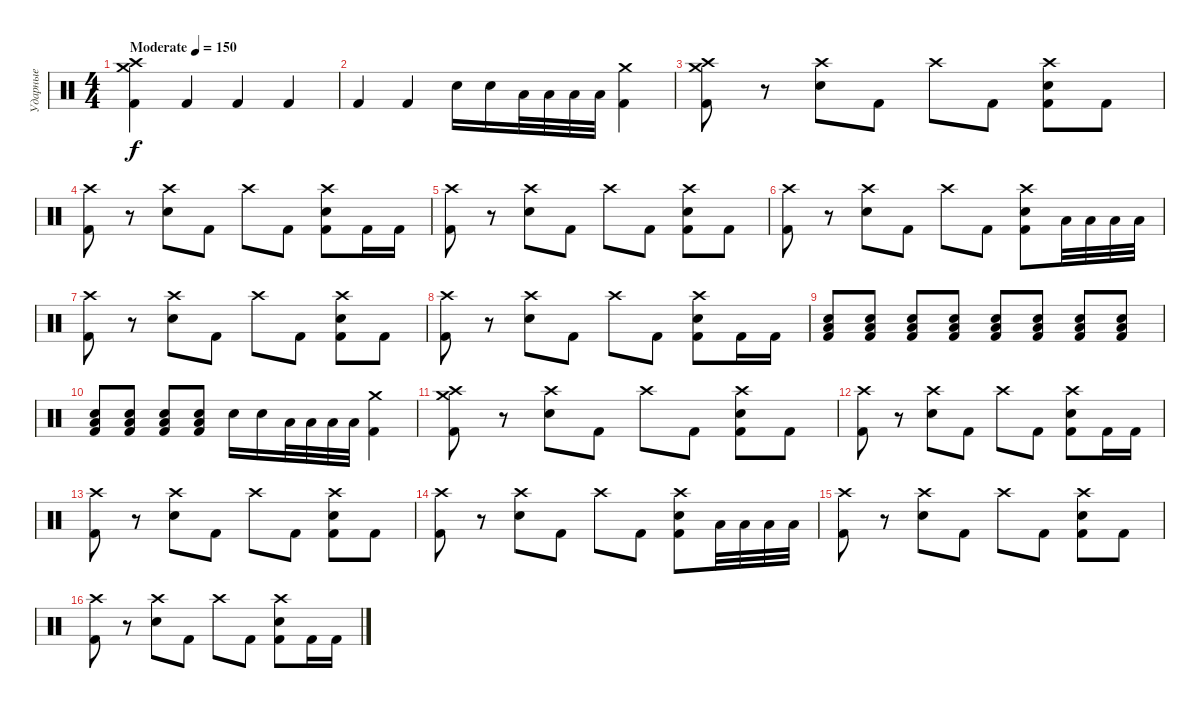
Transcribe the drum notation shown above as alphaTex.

\track ("Ударные" "Ударные") {instrument percussion}
\staff {score}
\articulation defaults
\ts (4 4)
\tempo (150 "Moderate")
\clef neutral
\ks c
("Crash medium (hit)" "Crash high (hit)" "Kick (hit) 2").4{dy f} "Kick (hit) 2".4 "Kick (hit) 2".4 "Kick (hit) 2".4 |
"Kick (hit) 2".4 "Kick (hit) 2".4 "Electric Snare (hit)".16 "Electric Snare (hit)".16 "Low Tom (hit)".32 "Low Tom (hit)".32 "Low Floor Tom (hit)".32 "Low Floor Tom (hit)".32 ("Crash medium (hit)" "Kick (hit) 2").4 |
("Crash medium (hit)" "Crash high (hit)" "Kick (hit) 2").8 r.8 ("Crash high (hit)" "Electric Snare (hit)").8 "Kick (hit) 2".8 "Crash high (hit)".8 "Kick (hit) 2".8 ("Crash high (hit)" "Electric Snare (hit)" "Kick (hit) 2").8 "Kick (hit) 2".8 |
("Crash high (hit)" "Kick (hit) 2").8 r.8 ("Crash high (hit)" "Electric Snare (hit)").8 "Kick (hit) 2".8 "Crash high (hit)".8 "Kick (hit) 2".8 ("Crash high (hit)" "Electric Snare (hit)" "Kick (hit) 2").8 "Kick (hit) 2".16 "Kick (hit) 2".16 |
("Crash high (hit)" "Kick (hit) 2").8 r.8 ("Crash high (hit)" "Electric Snare (hit)").8 "Kick (hit) 2".8 "Crash high (hit)".8 "Kick (hit) 2".8 ("Crash high (hit)" "Electric Snare (hit)" "Kick (hit) 2").8 "Kick (hit) 2".8 |
("Crash high (hit)" "Kick (hit) 2").8 r.8 ("Crash high (hit)" "Electric Snare (hit)").8 "Kick (hit) 2".8 "Crash high (hit)".8 "Kick (hit) 2".8 ("Crash high (hit)" "Electric Snare (hit)" "Kick (hit) 2").8 "Low Tom (hit)".32 "Low Tom (hit)".32 "Low Floor Tom (hit)".32 "Low Floor Tom (hit)".32 |
("Crash high (hit)" "Kick (hit) 2").8 r.8 ("Crash high (hit)" "Electric Snare (hit)").8 "Kick (hit) 2".8 "Crash high (hit)".8 "Kick (hit) 2".8 ("Crash high (hit)" "Electric Snare (hit)" "Kick (hit) 2").8 "Kick (hit) 2".8 |
("Crash high (hit)" "Kick (hit) 2").8 r.8 ("Crash high (hit)" "Electric Snare (hit)").8 "Kick (hit) 2".8 "Crash high (hit)".8 "Kick (hit) 2".8 ("Crash high (hit)" "Electric Snare (hit)" "Kick (hit) 2").8 "Kick (hit) 2".16 "Kick (hit) 2".16 |
("Low Floor Tom (hit)" "Electric Snare (hit)" "Kick (hit) 2").8 ("Low Floor Tom (hit)" "Electric Snare (hit)" "Kick (hit) 2").8 ("Low Floor Tom (hit)" "Electric Snare (hit)" "Kick (hit) 2").8 ("Low Floor Tom (hit)" "Electric Snare (hit)" "Kick (hit) 2").8 ("Low Floor Tom (hit)" "Electric Snare (hit)" "Kick (hit) 2").8 ("Low Floor Tom (hit)" "Electric Snare (hit)" "Kick (hit) 2").8 ("Low Floor Tom (hit)" "Electric Snare (hit)" "Kick (hit) 2").8 ("Low Floor Tom (hit)" "Electric Snare (hit)" "Kick (hit) 2").8 |
("Low Floor Tom (hit)" "Electric Snare (hit)" "Kick (hit) 2").8 ("Low Floor Tom (hit)" "Electric Snare (hit)" "Kick (hit) 2").8 ("Low Floor Tom (hit)" "Electric Snare (hit)" "Kick (hit) 2").8 ("Low Floor Tom (hit)" "Electric Snare (hit)" "Kick (hit) 2").8 "Electric Snare (hit)".16 "Electric Snare (hit)".16 "Low Tom (hit)".32 "Low Tom (hit)".32 "Low Floor Tom (hit)".32 "Low Floor Tom (hit)".32 ("Crash medium (hit)" "Kick (hit) 2").4 |
("Crash medium (hit)" "Crash high (hit)" "Kick (hit) 2").8 r.8 ("Crash high (hit)" "Electric Snare (hit)").8 "Kick (hit) 2".8 "Crash high (hit)".8 "Kick (hit) 2".8 ("Crash high (hit)" "Electric Snare (hit)" "Kick (hit) 2").8 "Kick (hit) 2".8 |
("Crash high (hit)" "Kick (hit) 2").8 r.8 ("Crash high (hit)" "Electric Snare (hit)").8 "Kick (hit) 2".8 "Crash high (hit)".8 "Kick (hit) 2".8 ("Crash high (hit)" "Electric Snare (hit)" "Kick (hit) 2").8 "Kick (hit) 2".16 "Kick (hit) 2".16 |
("Crash high (hit)" "Kick (hit) 2").8 r.8 ("Crash high (hit)" "Electric Snare (hit)").8 "Kick (hit) 2".8 "Crash high (hit)".8 "Kick (hit) 2".8 ("Crash high (hit)" "Electric Snare (hit)" "Kick (hit) 2").8 "Kick (hit) 2".8 |
("Crash high (hit)" "Kick (hit) 2").8 r.8 ("Crash high (hit)" "Electric Snare (hit)").8 "Kick (hit) 2".8 "Crash high (hit)".8 "Kick (hit) 2".8 ("Crash high (hit)" "Electric Snare (hit)" "Kick (hit) 2").8 "Low Tom (hit)".32 "Low Tom (hit)".32 "Low Floor Tom (hit)".32 "Low Floor Tom (hit)".32 |
("Crash high (hit)" "Kick (hit) 2").8 r.8 ("Crash high (hit)" "Electric Snare (hit)").8 "Kick (hit) 2".8 "Crash high (hit)".8 "Kick (hit) 2".8 ("Crash high (hit)" "Electric Snare (hit)" "Kick (hit) 2").8 "Kick (hit) 2".8 |
("Crash high (hit)" "Kick (hit) 2").8 r.8 ("Crash high (hit)" "Electric Snare (hit)").8 "Kick (hit) 2".8 "Crash high (hit)".8 "Kick (hit) 2".8 ("Crash high (hit)" "Electric Snare (hit)" "Kick (hit) 2").8 "Kick (hit) 2".16 "Kick (hit) 2".16
